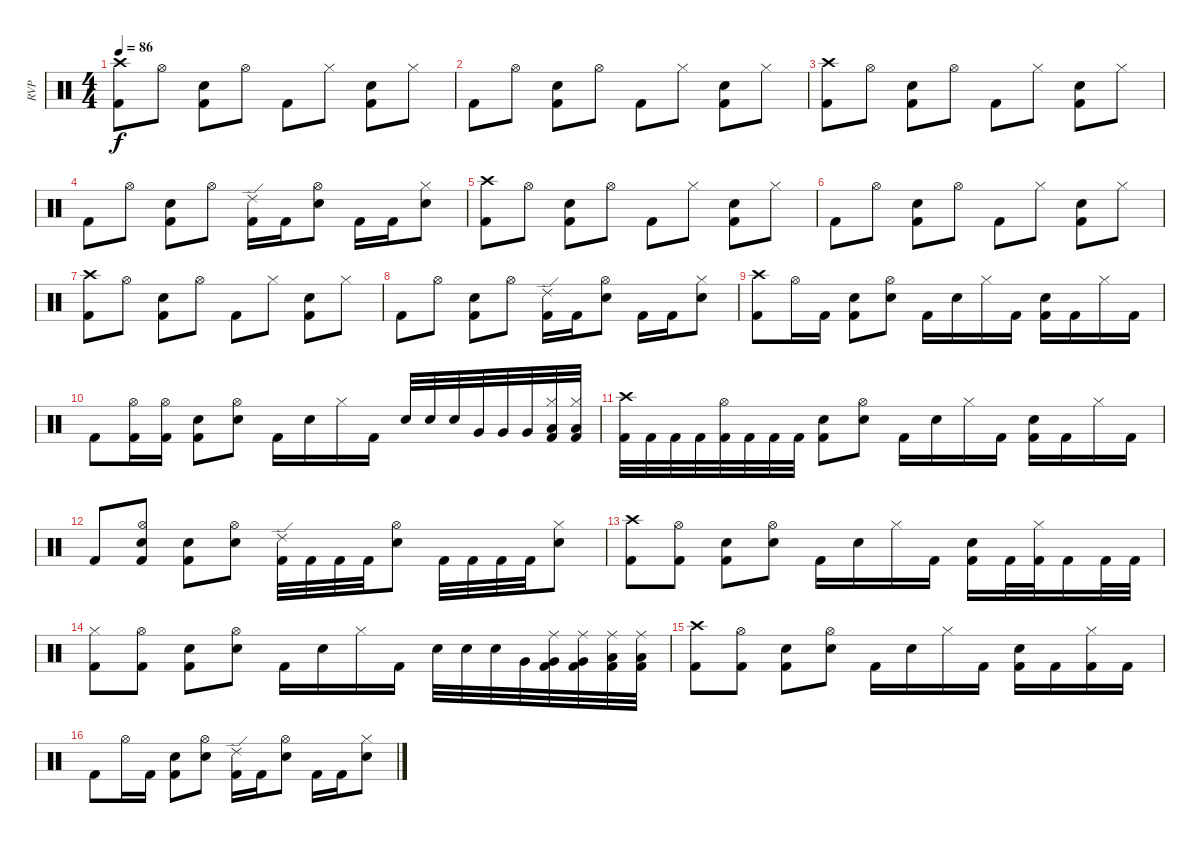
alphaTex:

\track ("RVP" "RVP") {instrument percussion}
\staff {score}
\articulation defaults
\ts (4 4)
\tempo 86
\clef neutral
\ks c
("Crash high (hit)" "Kick (hit) 2").8{dy f} "Hi-Hat (open)".8 ("Electric Snare (hit)" "Kick (hit) 2").8 "Hi-Hat (open)".8 "Kick (hit) 2".8 "Hi-Hat (closed)".8 ("Electric Snare (hit)" "Kick (hit) 2").8 "Hi-Hat (closed)".8 |
"Kick (hit) 2".8 "Hi-Hat (open)".8 ("Electric Snare (hit)" "Kick (hit) 2").8 "Hi-Hat (open)".8 "Kick (hit) 2".8 "Hi-Hat (closed)".8 ("Electric Snare (hit)" "Kick (hit) 2").8 "Hi-Hat (closed)".8 |
("Crash high (hit)" "Kick (hit) 2").8 "Hi-Hat (open)".8 ("Electric Snare (hit)" "Kick (hit) 2").8 "Hi-Hat (open)".8 "Kick (hit) 2".8 "Hi-Hat (closed)".8 ("Electric Snare (hit)" "Kick (hit) 2").8 "Hi-Hat (closed)".8 |
"Kick (hit) 2".8 "Hi-Hat (open)".8 ("Electric Snare (hit)" "Kick (hit) 2").8 "Hi-Hat (open)".8 ("Ride (edge) 2" "Kick (hit) 2").16 "Kick (hit) 2".16 ("Hi-Hat (open)" "Electric Snare (hit)").8 "Kick (hit) 2".16 "Kick (hit) 2".16 ("Hi-Hat (closed)" "Electric Snare (hit)").8 |
("Crash high (hit)" "Kick (hit) 2").8 "Hi-Hat (open)".8 ("Electric Snare (hit)" "Kick (hit) 2").8 "Hi-Hat (open)".8 "Kick (hit) 2".8 "Hi-Hat (closed)".8 ("Electric Snare (hit)" "Kick (hit) 2").8 "Hi-Hat (closed)".8 |
"Kick (hit) 2".8 "Hi-Hat (open)".8 ("Electric Snare (hit)" "Kick (hit) 2").8 "Hi-Hat (open)".8 "Kick (hit) 2".8 "Hi-Hat (closed)".8 ("Electric Snare (hit)" "Kick (hit) 2").8 "Hi-Hat (closed)".8 |
("Crash high (hit)" "Kick (hit) 2").8 "Hi-Hat (open)".8 ("Electric Snare (hit)" "Kick (hit) 2").8 "Hi-Hat (open)".8 "Kick (hit) 2".8 "Hi-Hat (closed)".8 ("Electric Snare (hit)" "Kick (hit) 2").8 "Hi-Hat (closed)".8 |
"Kick (hit) 2".8 "Hi-Hat (open)".8 ("Electric Snare (hit)" "Kick (hit) 2").8 "Hi-Hat (open)".8 ("Ride (edge) 2" "Kick (hit) 2").16 "Kick (hit) 2".16 ("Hi-Hat (open)" "Electric Snare (hit)").8 "Kick (hit) 2".16 "Kick (hit) 2".16 ("Hi-Hat (closed)" "Electric Snare (hit)").8 |
("Crash high (hit)" "Kick (hit) 2").8 "Hi-Hat (open)".16 "Kick (hit) 2".16 ("Electric Snare (hit)" "Kick (hit) 2").8 ("Hi-Hat (open)" "Electric Snare (hit)").8 "Kick (hit) 2".16 "Electric Snare (hit)".16 "Hi-Hat (closed)".16 "Kick (hit) 2".16 ("Electric Snare (hit)" "Kick (hit) 2").16 "Kick (hit) 2".16 "Hi-Hat (closed)".16 "Kick (hit) 2".16 |
"Kick (hit) 2".8 ("Hi-Hat (open)" "Kick (hit) 2").16 ("Hi-Hat (open)" "Kick (hit) 2").16 ("Electric Snare (hit)" "Kick (hit) 2").8 ("Hi-Hat (open)" "Electric Snare (hit)").8 "Kick (hit) 2".16 "Electric Snare (hit)".16 "Hi-Hat (closed)".16 "Kick (hit) 2".16 "Electric Snare (hit)".32 "Electric Snare (hit)".32 "Electric Snare (hit)".32 "Very Low Tom (hit)".32 "Very Low Tom (hit)".32 "Very Low Tom (hit)".32 ("Hi-Hat (closed)" "Low Floor Tom (hit)" "Kick (hit) 2").32 ("Hi-Hat (closed)" "Low Floor Tom (hit)" "Kick (hit) 2").32 |
("Crash high (hit)" "Kick (hit) 2").32 "Kick (hit) 2".32 "Kick (hit) 2".32 "Kick (hit) 2".32 ("Hi-Hat (open)" "Kick (hit) 2").32 "Kick (hit) 2".32 "Kick (hit) 2".32 "Kick (hit) 2".32 ("Electric Snare (hit)" "Kick (hit) 2").8 ("Hi-Hat (open)" "Electric Snare (hit)").8 "Kick (hit) 2".16 "Electric Snare (hit)".16 "Hi-Hat (closed)".16 "Kick (hit) 2".16 ("Electric Snare (hit)" "Kick (hit) 2").16 "Kick (hit) 2".16 "Hi-Hat (closed)".16 "Kick (hit) 2".16 |
"Kick (hit) 2".8 ("Hi-Hat (open)" "Electric Snare (hit)" "Kick (hit) 2").8 ("Electric Snare (hit)" "Kick (hit) 2").8 ("Hi-Hat (open)" "Electric Snare (hit)").8 ("Ride (edge) 2" "Kick (hit) 2").32 "Kick (hit) 2".32 "Kick (hit) 2".32 "Kick (hit) 2".32 ("Hi-Hat (open)" "Electric Snare (hit)").8 "Kick (hit) 2".32 "Kick (hit) 2".32 "Kick (hit) 2".32 "Kick (hit) 2".32 ("Hi-Hat (closed)" "Electric Snare (hit)").8 |
("Crash high (hit)" "Kick (hit) 2").8 ("Hi-Hat (open)" "Kick (hit) 2").8 ("Electric Snare (hit)" "Kick (hit) 2").8 ("Hi-Hat (open)" "Electric Snare (hit)").8 "Kick (hit) 2".16 "Electric Snare (hit)".16 "Hi-Hat (closed)".16 "Kick (hit) 2".16 ("Electric Snare (hit)" "Kick (hit) 2").16 "Kick (hit) 2".32 ("Hi-Hat (closed)" "Kick (hit) 2").32 "Kick (hit) 2".16 "Kick (hit) 2".32 "Kick (hit) 2".32 |
("Hi-Hat (closed)" "Kick (hit) 2").8 ("Hi-Hat (open)" "Kick (hit) 2").8 ("Electric Snare (hit)" "Kick (hit) 2").8 ("Hi-Hat (open)" "Electric Snare (hit)").8 "Kick (hit) 2".16 "Electric Snare (hit)".16 "Hi-Hat (closed)".16 "Kick (hit) 2".16 "Electric Snare (hit)".32 "Electric Snare (hit)".32 "Electric Snare (hit)".32 "Very Low Tom (hit)".32 ("Ride (middle)" "Very Low Tom (hit)" "Kick (hit) 2").32 ("Ride (middle)" "Very Low Tom (hit)" "Kick (hit) 2").32 ("Ride (middle)" "Low Floor Tom (hit)" "Kick (hit) 2").32 ("Ride (middle)" "Low Floor Tom (hit)" "Kick (hit) 2").32 |
("Crash high (hit)" "Kick (hit) 2").8 ("Hi-Hat (open)" "Kick (hit) 2").8 ("Electric Snare (hit)" "Kick (hit) 2").8 ("Hi-Hat (open)" "Electric Snare (hit)").8 "Kick (hit) 2".16 "Electric Snare (hit)".16 "Hi-Hat (closed)".16 "Kick (hit) 2".16 ("Electric Snare (hit)" "Kick (hit) 2").16 "Kick (hit) 2".16 ("Hi-Hat (closed)" "Kick (hit) 2").16 "Kick (hit) 2".16 |
"Kick (hit) 2".8 "Hi-Hat (open)".16 "Kick (hit) 2".16 ("Electric Snare (hit)" "Kick (hit) 2").8 ("Hi-Hat (open)" "Electric Snare (hit)").8 ("Ride (edge) 2" "Kick (hit) 2").16 "Kick (hit) 2".16 ("Hi-Hat (open)" "Electric Snare (hit)").8 "Kick (hit) 2".16 "Kick (hit) 2".16 ("Hi-Hat (closed)" "Electric Snare (hit)").8
